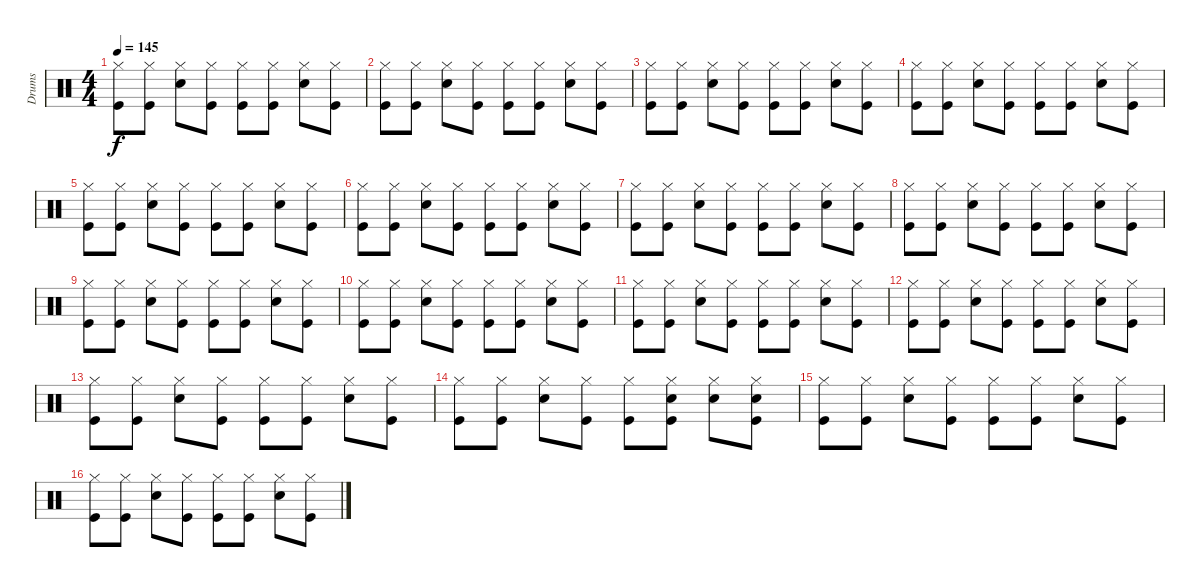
\track ("Drums" "Drums") {instrument percussion}
\staff {score}
\articulation defaults
\ts (4 4)
\tempo 145
\clef neutral
\ks c
("Kick (hit)" "Hi-Hat (closed)").8{dy f} ("Kick (hit)" "Hi-Hat (closed)").8 ("Hi-Hat (closed)" "Snare (hit) 2").8 ("Kick (hit)" "Hi-Hat (closed)").8 ("Kick (hit)" "Hi-Hat (closed)").8 ("Kick (hit)" "Hi-Hat (closed)").8 ("Hi-Hat (closed)" "Snare (hit) 2").8 ("Kick (hit)" "Hi-Hat (closed)").8 |
("Kick (hit)" "Hi-Hat (closed)").8 ("Kick (hit)" "Hi-Hat (closed)").8 ("Hi-Hat (closed)" "Snare (hit) 2").8 ("Kick (hit)" "Hi-Hat (closed)").8 ("Kick (hit)" "Hi-Hat (closed)").8 ("Kick (hit)" "Hi-Hat (closed)").8 ("Hi-Hat (closed)" "Snare (hit) 2").8 ("Kick (hit)" "Hi-Hat (closed)").8 |
("Kick (hit)" "Hi-Hat (closed)").8 ("Kick (hit)" "Hi-Hat (closed)").8 ("Hi-Hat (closed)" "Snare (hit) 2").8 ("Kick (hit)" "Hi-Hat (closed)").8 ("Kick (hit)" "Hi-Hat (closed)").8 ("Kick (hit)" "Hi-Hat (closed)").8 ("Hi-Hat (closed)" "Snare (hit) 2").8 ("Kick (hit)" "Hi-Hat (closed)").8 |
("Kick (hit)" "Hi-Hat (closed)").8 ("Kick (hit)" "Hi-Hat (closed)").8 ("Hi-Hat (closed)" "Snare (hit) 2").8 ("Kick (hit)" "Hi-Hat (closed)").8 ("Kick (hit)" "Hi-Hat (closed)").8 ("Kick (hit)" "Hi-Hat (closed)").8 ("Hi-Hat (closed)" "Snare (hit) 2").8 ("Kick (hit)" "Hi-Hat (closed)").8 |
("Kick (hit)" "Hi-Hat (closed)").8 ("Kick (hit)" "Hi-Hat (closed)").8 ("Hi-Hat (closed)" "Snare (hit) 2").8 ("Kick (hit)" "Hi-Hat (closed)").8 ("Kick (hit)" "Hi-Hat (closed)").8 ("Kick (hit)" "Hi-Hat (closed)").8 ("Hi-Hat (closed)" "Snare (hit) 2").8 ("Kick (hit)" "Hi-Hat (closed)").8 |
("Kick (hit)" "Hi-Hat (closed)").8 ("Kick (hit)" "Hi-Hat (closed)").8 ("Hi-Hat (closed)" "Snare (hit) 2").8 ("Kick (hit)" "Hi-Hat (closed)").8 ("Kick (hit)" "Hi-Hat (closed)").8 ("Kick (hit)" "Hi-Hat (closed)").8 ("Hi-Hat (closed)" "Snare (hit) 2").8 ("Kick (hit)" "Hi-Hat (closed)").8 |
("Kick (hit)" "Hi-Hat (closed)").8 ("Kick (hit)" "Hi-Hat (closed)").8 ("Hi-Hat (closed)" "Snare (hit) 2").8 ("Kick (hit)" "Hi-Hat (closed)").8 ("Kick (hit)" "Hi-Hat (closed)").8 ("Kick (hit)" "Hi-Hat (closed)").8 ("Hi-Hat (closed)" "Snare (hit) 2").8 ("Kick (hit)" "Hi-Hat (closed)").8 |
("Kick (hit)" "Hi-Hat (closed)").8 ("Kick (hit)" "Hi-Hat (closed)").8 ("Hi-Hat (closed)" "Snare (hit) 2").8 ("Kick (hit)" "Hi-Hat (closed)").8 ("Kick (hit)" "Hi-Hat (closed)").8 ("Kick (hit)" "Hi-Hat (closed)").8 ("Hi-Hat (closed)" "Snare (hit) 2").8 ("Kick (hit)" "Hi-Hat (closed)").8 |
("Kick (hit)" "Hi-Hat (closed)").8 ("Kick (hit)" "Hi-Hat (closed)").8 ("Hi-Hat (closed)" "Snare (hit) 2").8 ("Kick (hit)" "Hi-Hat (closed)").8 ("Kick (hit)" "Hi-Hat (closed)").8 ("Kick (hit)" "Hi-Hat (closed)").8 ("Hi-Hat (closed)" "Snare (hit) 2").8 ("Kick (hit)" "Hi-Hat (closed)").8 |
("Kick (hit)" "Hi-Hat (closed)").8 ("Kick (hit)" "Hi-Hat (closed)").8 ("Hi-Hat (closed)" "Snare (hit) 2").8 ("Kick (hit)" "Hi-Hat (closed)").8 ("Kick (hit)" "Hi-Hat (closed)").8 ("Kick (hit)" "Hi-Hat (closed)").8 ("Hi-Hat (closed)" "Snare (hit) 2").8 ("Kick (hit)" "Hi-Hat (closed)").8 |
("Kick (hit)" "Hi-Hat (closed)").8 ("Kick (hit)" "Hi-Hat (closed)").8 ("Hi-Hat (closed)" "Snare (hit) 2").8 ("Kick (hit)" "Hi-Hat (closed)").8 ("Kick (hit)" "Hi-Hat (closed)").8 ("Kick (hit)" "Hi-Hat (closed)").8 ("Hi-Hat (closed)" "Snare (hit) 2").8 ("Kick (hit)" "Hi-Hat (closed)").8 |
("Kick (hit)" "Hi-Hat (closed)").8 ("Kick (hit)" "Hi-Hat (closed)").8 ("Hi-Hat (closed)" "Snare (hit) 2").8 ("Kick (hit)" "Hi-Hat (closed)").8 ("Kick (hit)" "Hi-Hat (closed)").8 ("Kick (hit)" "Hi-Hat (closed)").8 ("Hi-Hat (closed)" "Snare (hit) 2").8 ("Kick (hit)" "Hi-Hat (closed)").8 |
("Kick (hit)" "Hi-Hat (closed)").8 ("Kick (hit)" "Hi-Hat (closed)").8 ("Hi-Hat (closed)" "Snare (hit) 2").8 ("Kick (hit)" "Hi-Hat (closed)").8 ("Kick (hit)" "Hi-Hat (closed)").8 ("Kick (hit)" "Hi-Hat (closed)").8 ("Hi-Hat (closed)" "Snare (hit) 2").8 ("Kick (hit)" "Hi-Hat (closed)").8 |
("Kick (hit)" "Hi-Hat (closed)").8 ("Kick (hit)" "Hi-Hat (closed)").8 ("Hi-Hat (closed)" "Snare (hit) 2").8 ("Kick (hit)" "Hi-Hat (closed)").8 ("Kick (hit)" "Hi-Hat (closed)").8 ("Kick (hit)" "Hi-Hat (closed)" "Snare (hit) 2").8 ("Hi-Hat (closed)" "Snare (hit) 2").8 ("Kick (hit)" "Hi-Hat (closed)" "Snare (hit) 2").8 |
("Kick (hit)" "Hi-Hat (closed)").8 ("Kick (hit)" "Hi-Hat (closed)").8 ("Hi-Hat (closed)" "Snare (hit) 2").8 ("Kick (hit)" "Hi-Hat (closed)").8 ("Kick (hit)" "Hi-Hat (closed)").8 ("Kick (hit)" "Hi-Hat (closed)").8 ("Hi-Hat (closed)" "Snare (hit) 2").8 ("Kick (hit)" "Hi-Hat (closed)").8 |
("Kick (hit)" "Hi-Hat (closed)").8 ("Kick (hit)" "Hi-Hat (closed)").8 ("Hi-Hat (closed)" "Snare (hit) 2").8 ("Kick (hit)" "Hi-Hat (closed)").8 ("Kick (hit)" "Hi-Hat (closed)").8 ("Kick (hit)" "Hi-Hat (closed)").8 ("Hi-Hat (closed)" "Snare (hit) 2").8 ("Kick (hit)" "Hi-Hat (closed)").8
